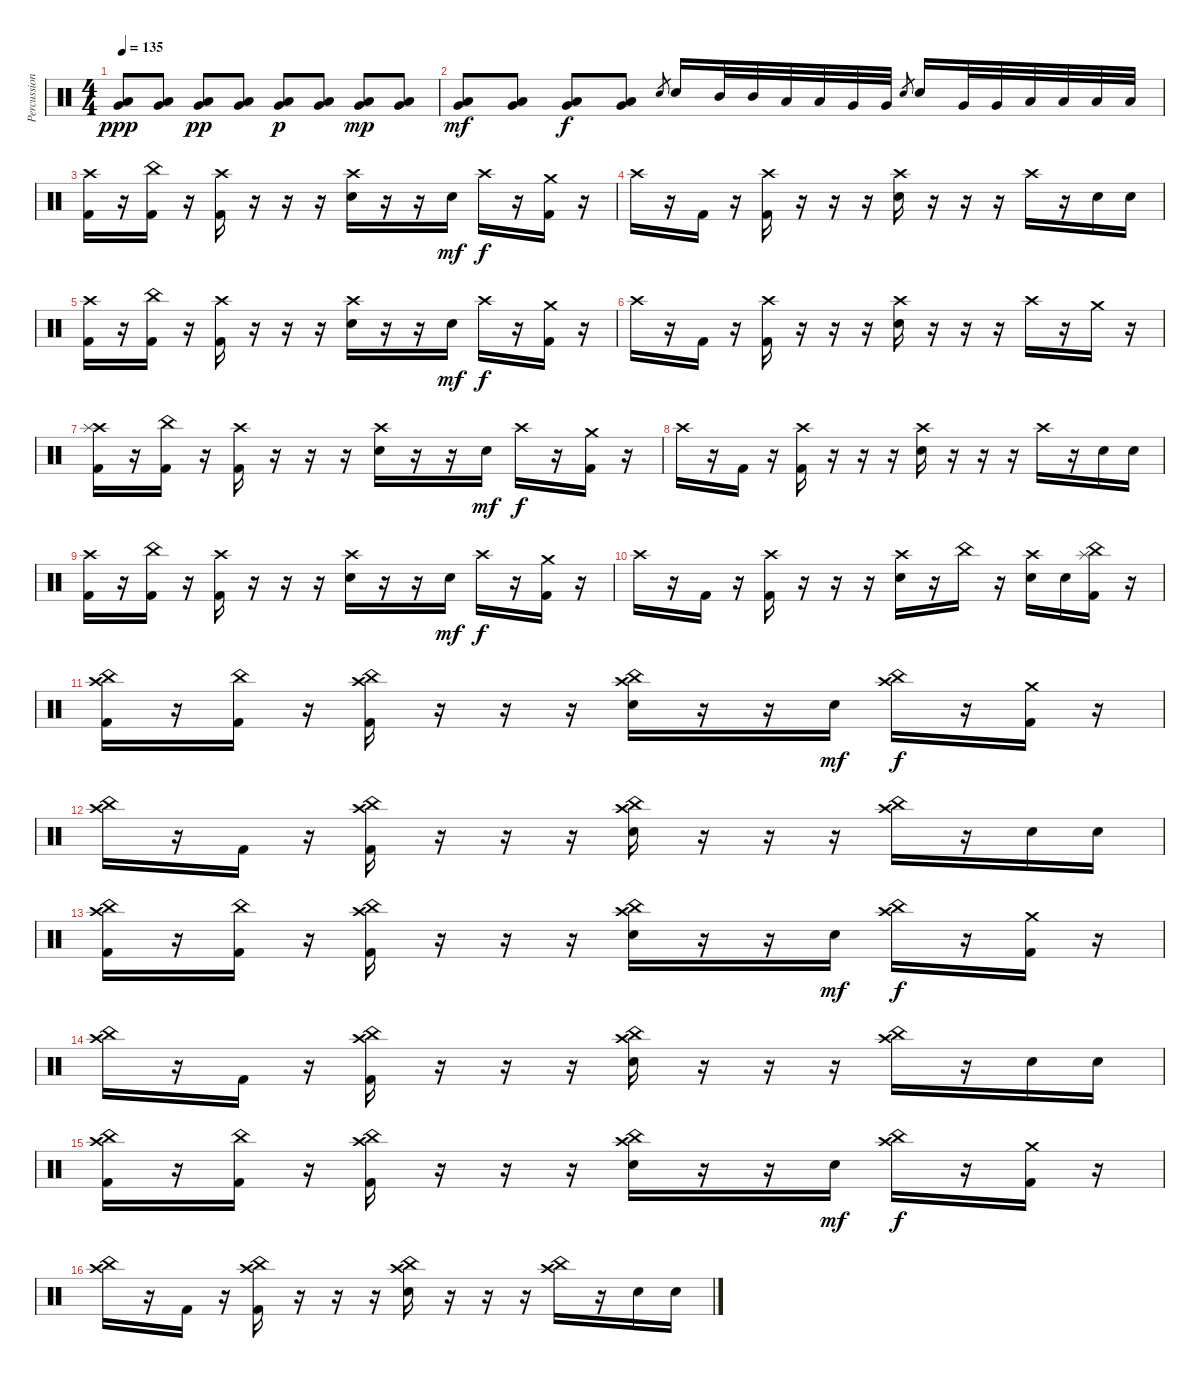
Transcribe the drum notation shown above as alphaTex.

\track ("Percussion" "Percussion") {instrument percussion}
\staff {score}
\articulation defaults
\ts (4 4)
\tempo 135
\clef neutral
\ks c
("Low Floor Tom (hit)" "Very Low Tom (hit)").8{dy ppp} ("Low Floor Tom (hit)" "Very Low Tom (hit)").8 ("Low Floor Tom (hit)" "Very Low Tom (hit)").8{dy pp} ("Low Floor Tom (hit)" "Very Low Tom (hit)").8 ("Low Floor Tom (hit)" "Very Low Tom (hit)").8{dy p} ("Low Floor Tom (hit)" "Very Low Tom (hit)").8 ("Low Floor Tom (hit)" "Very Low Tom (hit)").8{dy mp} ("Low Floor Tom (hit)" "Very Low Tom (hit)").8 |
("Low Floor Tom (hit)" "Very Low Tom (hit)").8{dy mf} ("Low Floor Tom (hit)" "Very Low Tom (hit)").8 ("Low Floor Tom (hit)" "Very Low Tom (hit)").8{dy f} ("Low Floor Tom (hit)" "Very Low Tom (hit)").8 "Electric Snare (hit)".8{gr} "Electric Snare (hit)".16 "Mid Tom (hit)".32 "Mid Tom (hit)".32 "Low Tom (hit)".32 "Low Tom (hit)".32 "Very Low Tom (hit)".32 "Very Low Tom (hit)".32 "Electric Snare (hit)".8{gr} "Electric Snare (hit)".16 "Very Low Tom (hit)".32 "Very Low Tom (hit)".32 "Low Floor Tom (hit)".32 "Low Floor Tom (hit)".32 "Low Floor Tom (hit)".32 "Low Floor Tom (hit)".32 |
("Crash high (hit)" "Kick (hit) 2").16 r.16 ("China (hit)" "Kick (hit) 2").16 r.16 ("Crash high (hit)" "Kick (hit) 2").16 r.16 r.16 r.16 ("Crash high (hit)" "Electric Snare (hit)").16 r.16 r.16 "Electric Snare (hit)".16{dy mf} "Crash high (hit)".16{dy f} r.16 ("Crash medium (hit)" "Kick (hit) 2").16 r.16 |
"Crash high (hit)".16 r.16 "Kick (hit) 2".16 r.16 ("Crash high (hit)" "Kick (hit) 2").16 r.16 r.16 r.16 ("Crash high (hit)" "Electric Snare (hit)").16 r.16 r.16 r.16 "Crash high (hit)".16 r.16 "Electric Snare (hit)".16 "Electric Snare (hit)".16 |
("Crash high (hit)" "Kick (hit) 2").16 r.16 ("China (hit)" "Kick (hit) 2").16 r.16 ("Crash high (hit)" "Kick (hit) 2").16 r.16 r.16 r.16 ("Crash high (hit)" "Electric Snare (hit)").16 r.16 r.16 "Electric Snare (hit)".16{dy mf} "Crash high (hit)".16{dy f} r.16 ("Crash medium (hit)" "Kick (hit) 2").16 r.16 |
"Crash high (hit)".16 r.16 "Kick (hit) 2".16 r.16 ("Crash high (hit)" "Kick (hit) 2").16 r.16 r.16 r.16 ("Crash high (hit)" "Electric Snare (hit)").16 r.16 r.16 r.16 "Crash high (hit)".16 r.16 "Crash medium (hit)".16 r.16 |
("Crash high (hit)" "Splash (hit)" "Kick (hit) 2").16 r.16 ("China (hit)" "Kick (hit) 2").16 r.16 ("Crash high (hit)" "Kick (hit) 2").16 r.16 r.16 r.16 ("Crash high (hit)" "Electric Snare (hit)").16 r.16 r.16 "Electric Snare (hit)".16{dy mf} "Crash high (hit)".16{dy f} r.16 ("Crash medium (hit)" "Kick (hit) 2").16 r.16 |
"Crash high (hit)".16 r.16 "Kick (hit) 2".16 r.16 ("Crash high (hit)" "Kick (hit) 2").16 r.16 r.16 r.16 ("Crash high (hit)" "Electric Snare (hit)").16 r.16 r.16 r.16 "Crash high (hit)".16 r.16 "Electric Snare (hit)".16 "Electric Snare (hit)".16 |
("Crash high (hit)" "Kick (hit) 2").16 r.16 ("China (hit)" "Kick (hit) 2").16 r.16 ("Crash high (hit)" "Kick (hit) 2").16 r.16 r.16 r.16 ("Crash high (hit)" "Electric Snare (hit)").16 r.16 r.16 "Electric Snare (hit)".16{dy mf} "Crash high (hit)".16{dy f} r.16 ("Crash medium (hit)" "Kick (hit) 2").16 r.16 |
"Crash high (hit)".16 r.16 "Kick (hit) 2".16 r.16 ("Crash high (hit)" "Kick (hit) 2").16 r.16 r.16 r.16 ("Crash high (hit)" "Electric Snare (hit)").16 r.16 "China (hit)".16 r.16 ("Crash high (hit)" "Electric Snare (hit)").16 "Electric Snare (hit)".16 ("China (hit)" "Splash (hit)" "Kick (hit) 2").16 r.16 |
("Crash high (hit)" "China (hit)" "Kick (hit) 2").16 r.16 ("China (hit)" "Kick (hit) 2").16 r.16 ("Crash high (hit)" "China (hit)" "Kick (hit) 2").16 r.16 r.16 r.16 ("Crash high (hit)" "China (hit)" "Electric Snare (hit)").16 r.16 r.16 "Electric Snare (hit)".16{dy mf} ("Crash high (hit)" "China (hit)").16{dy f} r.16 ("Crash medium (hit)" "Kick (hit) 2").16 r.16 |
("Crash high (hit)" "China (hit)").16 r.16 "Kick (hit) 2".16 r.16 ("Crash high (hit)" "China (hit)" "Kick (hit) 2").16 r.16 r.16 r.16 ("Crash high (hit)" "China (hit)" "Electric Snare (hit)").16 r.16 r.16 r.16 ("Crash high (hit)" "China (hit)").16 r.16 "Electric Snare (hit)".16 "Electric Snare (hit)".16 |
("Crash high (hit)" "China (hit)" "Kick (hit) 2").16 r.16 ("China (hit)" "Kick (hit) 2").16 r.16 ("Crash high (hit)" "China (hit)" "Kick (hit) 2").16 r.16 r.16 r.16 ("Crash high (hit)" "China (hit)" "Electric Snare (hit)").16 r.16 r.16 "Electric Snare (hit)".16{dy mf} ("Crash high (hit)" "China (hit)").16{dy f} r.16 ("Crash medium (hit)" "Kick (hit) 2").16 r.16 |
("Crash high (hit)" "China (hit)").16 r.16 "Kick (hit) 2".16 r.16 ("Crash high (hit)" "China (hit)" "Kick (hit) 2").16 r.16 r.16 r.16 ("Crash high (hit)" "China (hit)" "Electric Snare (hit)").16 r.16 r.16 r.16 ("Crash high (hit)" "China (hit)").16 r.16 "Electric Snare (hit)".16 "Electric Snare (hit)".16 |
("Crash high (hit)" "China (hit)" "Kick (hit) 2").16 r.16 ("China (hit)" "Kick (hit) 2").16 r.16 ("Crash high (hit)" "China (hit)" "Kick (hit) 2").16 r.16 r.16 r.16 ("Crash high (hit)" "China (hit)" "Electric Snare (hit)").16 r.16 r.16 "Electric Snare (hit)".16{dy mf} ("Crash high (hit)" "China (hit)").16{dy f} r.16 ("Crash medium (hit)" "Kick (hit) 2").16 r.16 |
("Crash high (hit)" "China (hit)").16 r.16 "Kick (hit) 2".16 r.16 ("Crash high (hit)" "China (hit)" "Kick (hit) 2").16 r.16 r.16 r.16 ("Crash high (hit)" "China (hit)" "Electric Snare (hit)").16 r.16 r.16 r.16 ("Crash high (hit)" "China (hit)").16 r.16 "Electric Snare (hit)".16 "Electric Snare (hit)".16
